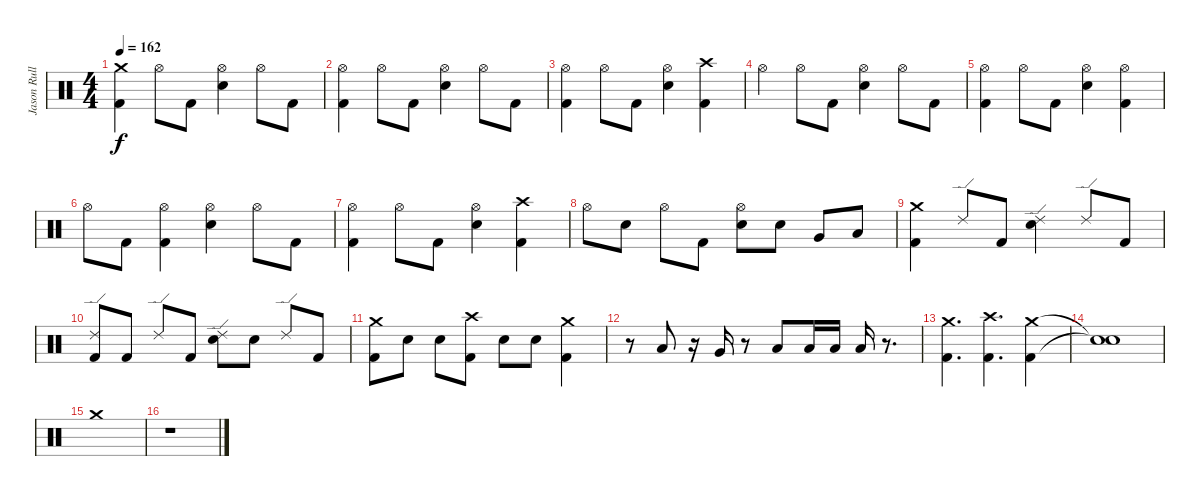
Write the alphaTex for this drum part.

\track ("Jason Rullo" "Jason Rull") {instrument percussion}
\staff {score}
\articulation defaults
\ts (4 4)
\tempo 162
\clef neutral
\ks c
("Kick (hit) 2" "Crash medium (hit)").4{dy f} "Hi-Hat (open)".8 "Kick (hit) 2".8 ("Electric Snare (hit)" "Hi-Hat (open)").4 "Hi-Hat (open)".8 "Kick (hit) 2".8 |
("Hi-Hat (open)" "Kick (hit) 2").4 "Hi-Hat (open)".8 "Kick (hit) 2".8 ("Electric Snare (hit)" "Hi-Hat (open)").4 "Hi-Hat (open)".8 "Kick (hit) 2".8 |
("Hi-Hat (open)" "Kick (hit) 2").4 "Hi-Hat (open)".8 "Kick (hit) 2".8 ("Electric Snare (hit)" "Hi-Hat (open)").4 ("Crash high (hit)" "Kick (hit) 2").4 |
"Hi-Hat (open)".4 "Hi-Hat (open)".8 "Kick (hit) 2".8 ("Electric Snare (hit)" "Hi-Hat (open)").4 "Hi-Hat (open)".8 "Kick (hit) 2".8 |
("Hi-Hat (open)" "Kick (hit) 2").4 "Hi-Hat (open)".8 "Kick (hit) 2".8 ("Electric Snare (hit)" "Hi-Hat (open)").4 ("Hi-Hat (open)" "Kick (hit) 2").4 |
"Hi-Hat (open)".8 "Kick (hit) 2".8 ("Kick (hit) 2" "Hi-Hat (open)").4 ("Electric Snare (hit)" "Hi-Hat (open)").4 "Hi-Hat (open)".8 "Kick (hit) 2".8 |
("Hi-Hat (open)" "Kick (hit) 2").4 "Hi-Hat (open)".8 "Kick (hit) 2".8 ("Electric Snare (hit)" "Hi-Hat (open)").4 ("Crash high (hit)" "Kick (hit) 2").4 |
"Hi-Hat (open)".8 "Electric Snare (hit)".8 "Hi-Hat (open)".8 "Kick (hit) 2".8 ("Electric Snare (hit)" "Hi-Hat (open)").8 "Electric Snare (hit)".8 "Very Low Tom (hit)".8 "Low Floor Tom (hit)".8 |
("Kick (hit) 2" "Crash medium (hit)").4 "Ride (edge) 2".8 "Kick (hit) 2".8 ("Electric Snare (hit)" "Ride (edge) 2").4 "Ride (edge) 2".8 "Kick (hit) 2".8 |
("Kick (hit) 2" "Ride (edge) 2").8 "Kick (hit) 2".8 "Ride (edge) 2".8 "Kick (hit) 2".8 ("Electric Snare (hit)" "Ride (edge) 2").8 "Electric Snare (hit)".8 "Ride (edge) 2".8 "Kick (hit) 2".8 |
("Crash medium (hit)" "Kick (hit) 2").8 "Electric Snare (hit)".8 "Electric Snare (hit)".8 ("Crash high (hit)" "Kick (hit) 2").8 "Electric Snare (hit)".8 "Electric Snare (hit)".8 ("Crash medium (hit)" "Kick (hit) 2").4 |
r.8 "Low Tom (hit)".8 r.16 "Very Low Tom (hit)".16 r.8 "Low Floor Tom (hit)".8 "Low Floor Tom (hit)".16 "Low Floor Tom (hit)".16 "Low Floor Tom (hit)".16 r.8{d} |
("Crash medium (hit)" "Kick (hit) 2").4{d} ("Crash high (hit)" "Kick (hit) 2").4{d} ("Crash medium (hit)" "Kick (hit) 2").4 |
("Snare (hit)"{t} "Snare (hit)"{t}).1 |
"Crash medium (hit)".1 |
r.1
